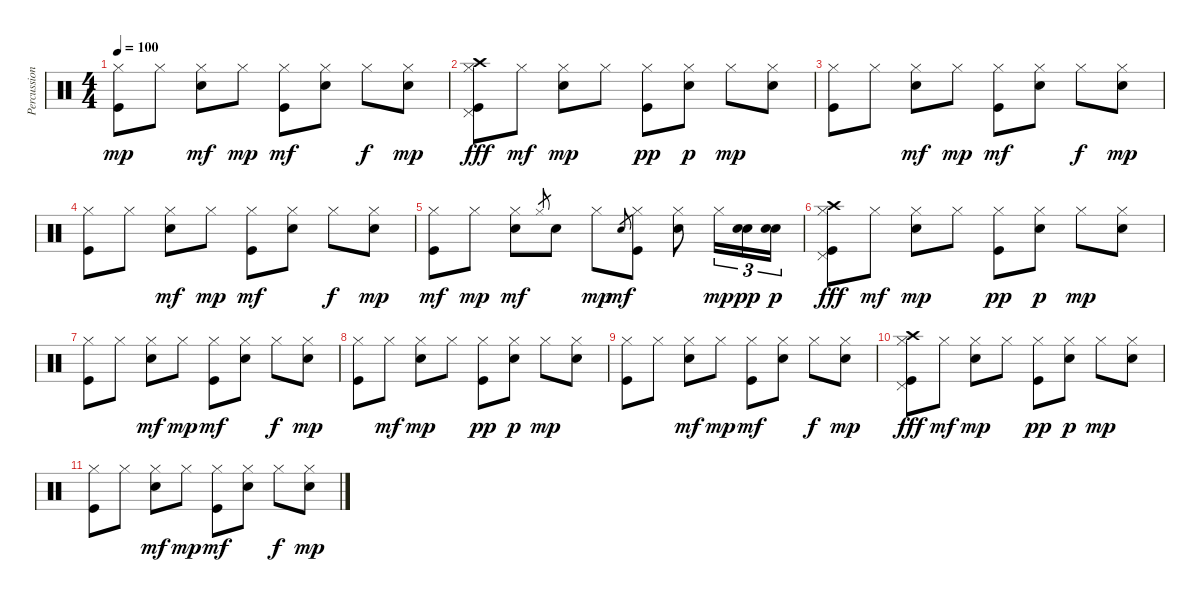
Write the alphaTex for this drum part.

\track ("Percussions" "Percussion") {instrument percussion}
\staff {score}
\articulation defaults
\ts (4 4)
\tempo 100
\clef neutral
\ks c
("Kick (hit)" "Hi-Hat (closed)").8{dy mp} "Hi-Hat (closed)".8 ("Snare (hit) 2" "Hi-Hat (closed)").8{dy mf} "Hi-Hat (closed)".8{dy mp} ("Kick (hit)" "Hi-Hat (closed)").8{dy mf} ("Snare (hit) 2" "Hi-Hat (closed)").8 "Hi-Hat (closed)".8{dy f} ("Snare (hit) 2" "Hi-Hat (closed)").8{dy mp} |
("Kick (hit)" "Hi-Hat (closed)" "Pedal Hi-Hat (hit)" "Crash high (hit)").8{dy fff} "Hi-Hat (closed)".8{dy mf} ("Snare (hit) 2" "Hi-Hat (closed)").8{dy mp} "Hi-Hat (closed)".8 ("Kick (hit)" "Hi-Hat (closed)").8{dy pp} ("Snare (hit) 2" "Hi-Hat (closed)").8{dy p} "Hi-Hat (closed)".8{dy mp} ("Snare (hit) 2" "Hi-Hat (closed)").8 |
("Kick (hit)" "Hi-Hat (closed)").8 "Hi-Hat (closed)".8 ("Snare (hit) 2" "Hi-Hat (closed)").8{dy mf} "Hi-Hat (closed)".8{dy mp} ("Kick (hit)" "Hi-Hat (closed)").8{dy mf} ("Snare (hit) 2" "Hi-Hat (closed)").8 "Hi-Hat (closed)".8{dy f} ("Snare (hit) 2" "Hi-Hat (closed)").8{dy mp} |
("Kick (hit)" "Hi-Hat (closed)").8 "Hi-Hat (closed)".8 ("Snare (hit) 2" "Hi-Hat (closed)").8{dy mf} "Hi-Hat (closed)".8{dy mp} ("Kick (hit)" "Hi-Hat (closed)").8{dy mf} ("Snare (hit) 2" "Hi-Hat (closed)").8 "Hi-Hat (closed)".8{dy f} ("Snare (hit) 2" "Hi-Hat (closed)").8{dy mp} |
("Kick (hit)" "Hi-Hat (closed)").8{dy mf} "Hi-Hat (closed)".8{dy mp} ("Snare (hit) 2" "Hi-Hat (closed)").8{dy mf} "Hi-Hat (closed)".8{gr} "Snare (hit) 2".8 "Hi-Hat (closed)".8{dy mp} "Snare (hit) 2".8{gr dy mf} ("Kick (hit)" "Hi-Hat (closed)").8 ("Snare (hit) 2" "Hi-Hat (closed)").8 "Hi-Hat (closed)".16{tu (3 2) dy mp} ("Snare (hit) 2" "Snare (hit) 2").16{tu (3 2) dy pp} ("Snare (hit) 2" "Snare (hit) 2").16{tu (3 2) dy p} |
("Kick (hit)" "Hi-Hat (closed)" "Pedal Hi-Hat (hit)" "Crash high (hit)").8{dy fff} "Hi-Hat (closed)".8{dy mf} ("Snare (hit) 2" "Hi-Hat (closed)").8{dy mp} "Hi-Hat (closed)".8 ("Kick (hit)" "Hi-Hat (closed)").8{dy pp} ("Snare (hit) 2" "Hi-Hat (closed)").8{dy p} "Hi-Hat (closed)".8{dy mp} ("Snare (hit) 2" "Hi-Hat (closed)").8 |
("Kick (hit)" "Hi-Hat (closed)").8 "Hi-Hat (closed)".8 ("Snare (hit) 2" "Hi-Hat (closed)").8{dy mf} "Hi-Hat (closed)".8{dy mp} ("Kick (hit)" "Hi-Hat (closed)").8{dy mf} ("Snare (hit) 2" "Hi-Hat (closed)").8 "Hi-Hat (closed)".8{dy f} ("Snare (hit) 2" "Hi-Hat (closed)").8{dy mp} |
("Kick (hit)" "Hi-Hat (closed)").8 "Hi-Hat (closed)".8{dy mf} ("Snare (hit) 2" "Hi-Hat (closed)").8{dy mp} "Hi-Hat (closed)".8 ("Kick (hit)" "Hi-Hat (closed)").8{dy pp} ("Snare (hit) 2" "Hi-Hat (closed)").8{dy p} "Hi-Hat (closed)".8{dy mp} ("Snare (hit) 2" "Hi-Hat (closed)").8 |
("Kick (hit)" "Hi-Hat (closed)").8 "Hi-Hat (closed)".8 ("Snare (hit) 2" "Hi-Hat (closed)").8{dy mf} "Hi-Hat (closed)".8{dy mp} ("Kick (hit)" "Hi-Hat (closed)").8{dy mf} ("Snare (hit) 2" "Hi-Hat (closed)").8 "Hi-Hat (closed)".8{dy f} ("Snare (hit) 2" "Hi-Hat (closed)").8{dy mp} |
("Kick (hit)" "Hi-Hat (closed)" "Pedal Hi-Hat (hit)" "Crash high (hit)").8{dy fff} "Hi-Hat (closed)".8{dy mf} ("Snare (hit) 2" "Hi-Hat (closed)").8{dy mp} "Hi-Hat (closed)".8 ("Kick (hit)" "Hi-Hat (closed)").8{dy pp} ("Snare (hit) 2" "Hi-Hat (closed)").8{dy p} "Hi-Hat (closed)".8{dy mp} ("Snare (hit) 2" "Hi-Hat (closed)").8 |
("Kick (hit)" "Hi-Hat (closed)").8 "Hi-Hat (closed)".8 ("Snare (hit) 2" "Hi-Hat (closed)").8{dy mf} "Hi-Hat (closed)".8{dy mp} ("Kick (hit)" "Hi-Hat (closed)").8{dy mf} ("Snare (hit) 2" "Hi-Hat (closed)").8 "Hi-Hat (closed)".8{dy f} ("Snare (hit) 2" "Hi-Hat (closed)").8{dy mp}
